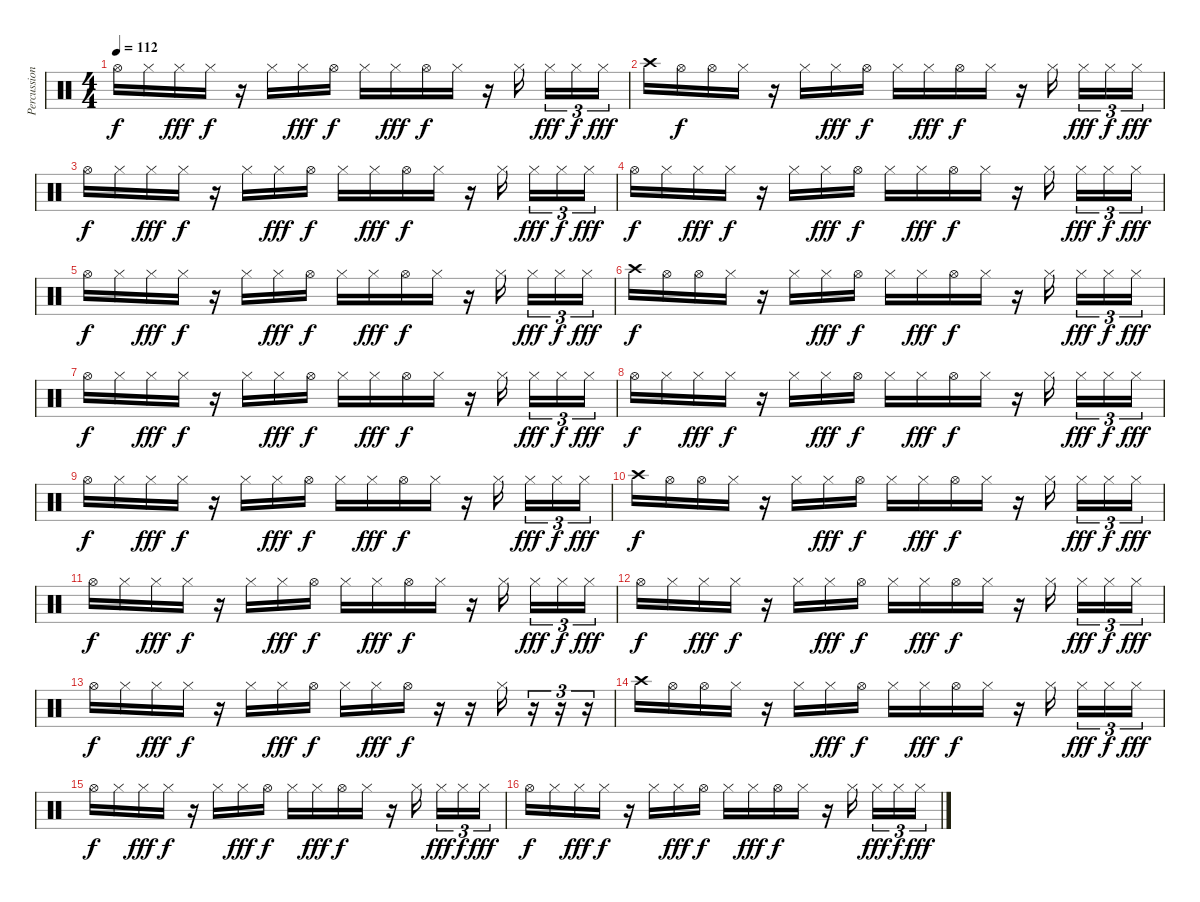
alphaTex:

\track ("Percussion" "Percussion") {instrument percussion}
\staff {score}
\articulation defaults
\ts (4 4)
\tempo 112
\clef neutral
\ks c "Hi-Hat (open)".16{dy f} "Hi-Hat (closed)".16 "Hi-Hat (closed)".16{dy fff} "Hi-Hat (closed)".16{dy f}
r.16 "Hi-Hat (closed)".16 "Hi-Hat (closed)".16{dy fff} "Hi-Hat (open)".16{dy f} "Hi-Hat (closed)".16 "Hi-Hat (closed)".16{dy fff} "Hi-Hat (open)".16{dy f} "Hi-Hat (closed)".16 r.16 "Hi-Hat (closed)".16{beam splitsecondary} "Hi-Hat (closed)".16{tu (3 2) dy fff} "Hi-Hat (closed)".16{tu (3 2) dy f} "Hi-Hat (closed)".16{tu (3 2) dy fff} |
"Crash high (hit)".16 "Hi-Hat (open)".16{dy f} "Hi-Hat (open)".16 "Hi-Hat (closed)".16 r.16 "Hi-Hat (closed)".16 "Hi-Hat (closed)".16{dy fff} "Hi-Hat (open)".16{dy f} "Hi-Hat (closed)".16 "Hi-Hat (closed)".16{dy fff} "Hi-Hat (open)".16{dy f} "Hi-Hat (closed)".16 r.16 "Hi-Hat (closed)".16{beam splitsecondary} "Hi-Hat (closed)".16{tu (3 2) dy fff} "Hi-Hat (closed)".16{tu (3 2) dy f} "Hi-Hat (closed)".16{tu (3 2) dy fff} |
"Hi-Hat (open)".16{dy f} "Hi-Hat (closed)".16 "Hi-Hat (closed)".16{dy fff} "Hi-Hat (closed)".16{dy f} r.16 "Hi-Hat (closed)".16 "Hi-Hat (closed)".16{dy fff} "Hi-Hat (open)".16{dy f} "Hi-Hat (closed)".16 "Hi-Hat (closed)".16{dy fff} "Hi-Hat (open)".16{dy f} "Hi-Hat (closed)".16 r.16 "Hi-Hat (closed)".16{beam splitsecondary} "Hi-Hat (closed)".16{tu (3 2) dy fff} "Hi-Hat (closed)".16{tu (3 2) dy f} "Hi-Hat (closed)".16{tu (3 2) dy fff} |
"Hi-Hat (open)".16{dy f} "Hi-Hat (closed)".16 "Hi-Hat (closed)".16{dy fff} "Hi-Hat (closed)".16{dy f} r.16 "Hi-Hat (closed)".16 "Hi-Hat (closed)".16{dy fff} "Hi-Hat (open)".16{dy f} "Hi-Hat (closed)".16 "Hi-Hat (closed)".16{dy fff} "Hi-Hat (open)".16{dy f} "Hi-Hat (closed)".16 r.16 "Hi-Hat (closed)".16{beam splitsecondary} "Hi-Hat (closed)".16{tu (3 2) dy fff} "Hi-Hat (closed)".16{tu (3 2) dy f} "Hi-Hat (closed)".16{tu (3 2) dy fff} |
"Hi-Hat (open)".16{dy f} "Hi-Hat (closed)".16 "Hi-Hat (closed)".16{dy fff} "Hi-Hat (closed)".16{dy f} r.16 "Hi-Hat (closed)".16 "Hi-Hat (closed)".16{dy fff} "Hi-Hat (open)".16{dy f} "Hi-Hat (closed)".16 "Hi-Hat (closed)".16{dy fff} "Hi-Hat (open)".16{dy f} "Hi-Hat (closed)".16 r.16 "Hi-Hat (closed)".16{beam splitsecondary} "Hi-Hat (closed)".16{tu (3 2) dy fff} "Hi-Hat (closed)".16{tu (3 2) dy f} "Hi-Hat (closed)".16{tu (3 2) dy fff} |
"Crash high (hit)".16{dy f} "Hi-Hat (open)".16 "Hi-Hat (open)".16 "Hi-Hat (closed)".16 r.16 "Hi-Hat (closed)".16 "Hi-Hat (closed)".16{dy fff} "Hi-Hat (open)".16{dy f} "Hi-Hat (closed)".16 "Hi-Hat (closed)".16{dy fff} "Hi-Hat (open)".16{dy f} "Hi-Hat (closed)".16 r.16 "Hi-Hat (closed)".16{beam splitsecondary} "Hi-Hat (closed)".16{tu (3 2) dy fff} "Hi-Hat (closed)".16{tu (3 2) dy f} "Hi-Hat (closed)".16{tu (3 2) dy fff} |
"Hi-Hat (open)".16{dy f} "Hi-Hat (closed)".16 "Hi-Hat (closed)".16{dy fff} "Hi-Hat (closed)".16{dy f} r.16 "Hi-Hat (closed)".16 "Hi-Hat (closed)".16{dy fff} "Hi-Hat (open)".16{dy f} "Hi-Hat (closed)".16 "Hi-Hat (closed)".16{dy fff} "Hi-Hat (open)".16{dy f} "Hi-Hat (closed)".16 r.16 "Hi-Hat (closed)".16{beam splitsecondary} "Hi-Hat (closed)".16{tu (3 2) dy fff} "Hi-Hat (closed)".16{tu (3 2) dy f} "Hi-Hat (closed)".16{tu (3 2) dy fff} |
"Hi-Hat (open)".16{dy f} "Hi-Hat (closed)".16 "Hi-Hat (closed)".16{dy fff} "Hi-Hat (closed)".16{dy f} r.16 "Hi-Hat (closed)".16 "Hi-Hat (closed)".16{dy fff} "Hi-Hat (open)".16{dy f} "Hi-Hat (closed)".16 "Hi-Hat (closed)".16{dy fff} "Hi-Hat (open)".16{dy f} "Hi-Hat (closed)".16 r.16 "Hi-Hat (closed)".16{beam splitsecondary} "Hi-Hat (closed)".16{tu (3 2) dy fff} "Hi-Hat (closed)".16{tu (3 2) dy f} "Hi-Hat (closed)".16{tu (3 2) dy fff} |
"Hi-Hat (open)".16{dy f} "Hi-Hat (closed)".16 "Hi-Hat (closed)".16{dy fff} "Hi-Hat (closed)".16{dy f} r.16 "Hi-Hat (closed)".16 "Hi-Hat (closed)".16{dy fff} "Hi-Hat (open)".16{dy f} "Hi-Hat (closed)".16 "Hi-Hat (closed)".16{dy fff} "Hi-Hat (open)".16{dy f} "Hi-Hat (closed)".16 r.16 "Hi-Hat (closed)".16{beam splitsecondary} "Hi-Hat (closed)".16{tu (3 2) dy fff} "Hi-Hat (closed)".16{tu (3 2) dy f} "Hi-Hat (closed)".16{tu (3 2) dy fff} |
"Crash high (hit)".16{dy f} "Hi-Hat (open)".16 "Hi-Hat (open)".16 "Hi-Hat (closed)".16 r.16 "Hi-Hat (closed)".16 "Hi-Hat (closed)".16{dy fff} "Hi-Hat (open)".16{dy f} "Hi-Hat (closed)".16 "Hi-Hat (closed)".16{dy fff} "Hi-Hat (open)".16{dy f} "Hi-Hat (closed)".16 r.16 "Hi-Hat (closed)".16{beam splitsecondary} "Hi-Hat (closed)".16{tu (3 2) dy fff} "Hi-Hat (closed)".16{tu (3 2) dy f} "Hi-Hat (closed)".16{tu (3 2) dy fff} |
"Hi-Hat (open)".16{dy f} "Hi-Hat (closed)".16 "Hi-Hat (closed)".16{dy fff} "Hi-Hat (closed)".16{dy f} r.16 "Hi-Hat (closed)".16 "Hi-Hat (closed)".16{dy fff} "Hi-Hat (open)".16{dy f} "Hi-Hat (closed)".16 "Hi-Hat (closed)".16{dy fff} "Hi-Hat (open)".16{dy f} "Hi-Hat (closed)".16 r.16 "Hi-Hat (closed)".16{beam splitsecondary} "Hi-Hat (closed)".16{tu (3 2) dy fff} "Hi-Hat (closed)".16{tu (3 2) dy f} "Hi-Hat (closed)".16{tu (3 2) dy fff} |
"Hi-Hat (open)".16{dy f} "Hi-Hat (closed)".16 "Hi-Hat (closed)".16{dy fff} "Hi-Hat (closed)".16{dy f} r.16 "Hi-Hat (closed)".16 "Hi-Hat (closed)".16{dy fff} "Hi-Hat (open)".16{dy f} "Hi-Hat (closed)".16 "Hi-Hat (closed)".16{dy fff} "Hi-Hat (open)".16{dy f} "Hi-Hat (closed)".16 r.16 "Hi-Hat (closed)".16{beam splitsecondary} "Hi-Hat (closed)".16{tu (3 2) dy fff} "Hi-Hat (closed)".16{tu (3 2) dy f} "Hi-Hat (closed)".16{tu (3 2) dy fff} |
"Hi-Hat (open)".16{dy f} "Hi-Hat (closed)".16 "Hi-Hat (closed)".16{dy fff} "Hi-Hat (closed)".16{dy f} r.16 "Hi-Hat (closed)".16 "Hi-Hat (closed)".16{dy fff} "Hi-Hat (open)".16{dy f} "Hi-Hat (closed)".16 "Hi-Hat (closed)".16{dy fff} "Hi-Hat (open)".16{dy f} r.16 r.16 "Hi-Hat (closed)".16 r.16{tu (3 2)} r.16{tu (3 2)} r.16{tu (3 2)} |
"Crash high (hit)".16 "Hi-Hat (open)".16 "Hi-Hat (open)".16 "Hi-Hat (closed)".16 r.16 "Hi-Hat (closed)".16 "Hi-Hat (closed)".16{dy fff} "Hi-Hat (open)".16{dy f} "Hi-Hat (closed)".16 "Hi-Hat (closed)".16{dy fff} "Hi-Hat (open)".16{dy f} "Hi-Hat (closed)".16 r.16 "Hi-Hat (closed)".16{beam splitsecondary} "Hi-Hat (closed)".16{tu (3 2) dy fff} "Hi-Hat (closed)".16{tu (3 2) dy f} "Hi-Hat (closed)".16{tu (3 2) dy fff} |
"Hi-Hat (open)".16{dy f} "Hi-Hat (closed)".16 "Hi-Hat (closed)".16{dy fff} "Hi-Hat (closed)".16{dy f} r.16 "Hi-Hat (closed)".16 "Hi-Hat (closed)".16{dy fff} "Hi-Hat (open)".16{dy f} "Hi-Hat (closed)".16 "Hi-Hat (closed)".16{dy fff} "Hi-Hat (open)".16{dy f} "Hi-Hat (closed)".16 r.16 "Hi-Hat (closed)".16{beam splitsecondary} "Hi-Hat (closed)".16{tu (3 2) dy fff} "Hi-Hat (closed)".16{tu (3 2) dy f} "Hi-Hat (closed)".16{tu (3 2) dy fff} |
"Hi-Hat (open)".16{dy f} "Hi-Hat (closed)".16 "Hi-Hat (closed)".16{dy fff} "Hi-Hat (closed)".16{dy f} r.16 "Hi-Hat (closed)".16 "Hi-Hat (closed)".16{dy fff} "Hi-Hat (open)".16{dy f} "Hi-Hat (closed)".16 "Hi-Hat (closed)".16{dy fff} "Hi-Hat (open)".16{dy f} "Hi-Hat (closed)".16 r.16 "Hi-Hat (closed)".16{beam splitsecondary} "Hi-Hat (closed)".16{tu (3 2) dy fff} "Hi-Hat (closed)".16{tu (3 2) dy f} "Hi-Hat (closed)".16{tu (3 2) dy fff}
